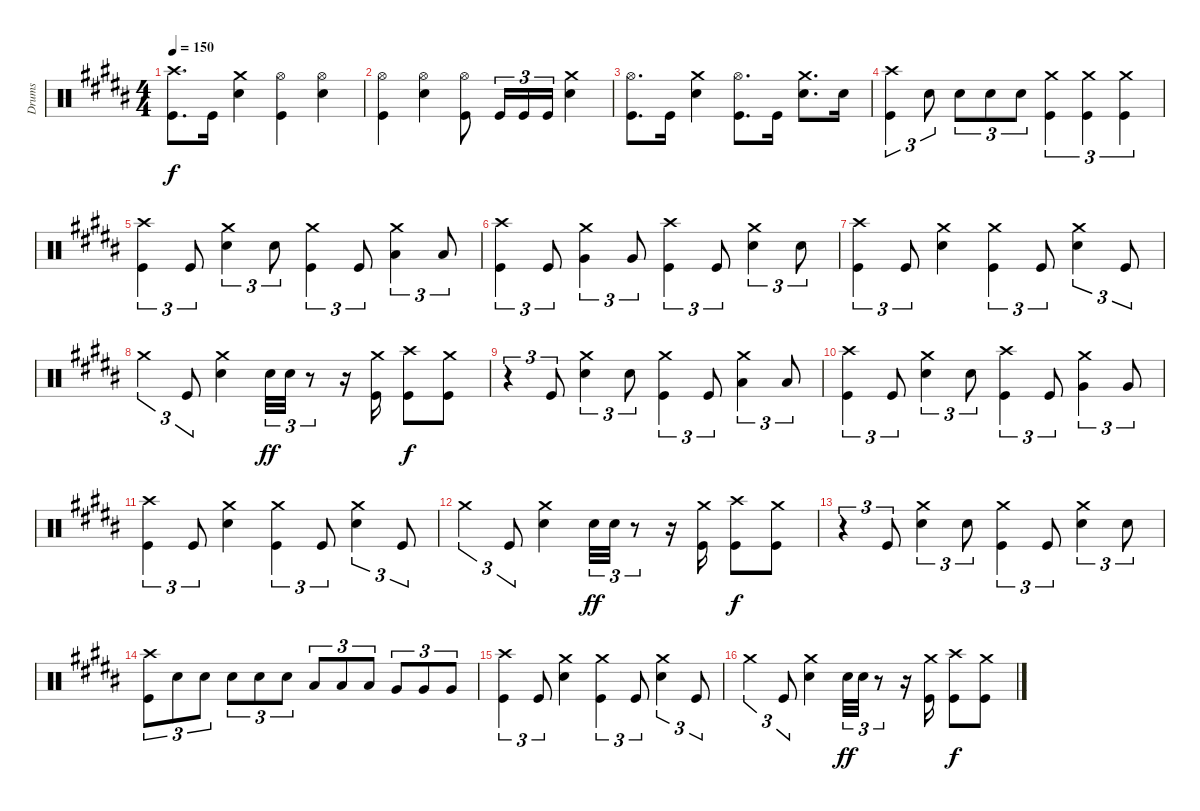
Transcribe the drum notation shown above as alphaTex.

\track ("Drums" "Drums") {instrument percussion}
\staff {score}
\articulation defaults
\ts (4 4)
\tempo 150
\clef neutral
\ks b
("Crash high (hit)" "Kick (hit)").8{d dy f} "Kick (hit)".16 ("Crash medium (hit)" "Snare (hit) 2").4 ("Kick (hit)" "Hi-Hat (open)").4 ("Snare (hit) 2" "Hi-Hat (open)").4 |
\ks g#minor
("Kick (hit)" "Hi-Hat (open)").4 ("Snare (hit) 2" "Hi-Hat (open)").4 ("Kick (hit)" "Hi-Hat (open)").8 "Kick (hit)".16{tu (3 2)} "Kick (hit)".16{tu (3 2)} "Kick (hit)".16{tu (3 2)} ("Snare (hit) 2" "Crash medium (hit)").4 |
("Hi-Hat (open)" "Kick (hit)").8{d} "Kick (hit)".16 ("Crash medium (hit)" "Snare (hit) 2").4 ("Hi-Hat (open)" "Kick (hit)").8{d} "Kick (hit)".16 ("Crash medium (hit)" "Snare (hit) 2").8{d} "Snare (hit) 2".16 |
("Crash high (hit)" "Kick (hit)").4{tu (3 2)} "Snare (hit) 2".8{tu (3 2)} "Snare (hit) 2".8{tu (3 2)} "Snare (hit) 2".8{tu (3 2)} "Snare (hit) 2".8{tu (3 2)} ("Crash medium (hit)" "Kick (hit)").4{tu (3 2)} ("Kick (hit)" "Crash medium (hit)").4{tu (3 2)} ("Kick (hit)" "Crash medium (hit)").4{tu (3 2)} |
\ks b
("Crash high (hit)" "Kick (hit)").4{tu (3 2)} "Kick (hit)".8{tu (3 2)} ("Snare (hit) 2" "Crash medium (hit)").4{tu (3 2)} "Snare (hit) 2".8{tu (3 2)} ("Crash medium (hit)" "Kick (hit)").4{tu (3 2)} "Kick (hit)".8{tu (3 2)} ("Crash medium (hit)" "Low Tom (hit)").4{tu (3 2)} "Low Tom (hit)".8{tu (3 2)} |
\ks g#minor
("Crash high (hit)" "Kick (hit)").4{tu (3 2)} "Kick (hit)".8{tu (3 2)} ("Very Low Tom (hit)" "Crash medium (hit)").4{tu (3 2)} "Very Low Tom (hit)".8{tu (3 2)} ("Crash high (hit)" "Kick (hit)").4{tu (3 2)} "Kick (hit)".8{tu (3 2)} ("Snare (hit) 2" "Crash medium (hit)").4{tu (3 2)} "Snare (hit) 2".8{tu (3 2)} |
("Crash high (hit)" "Kick (hit)").4{tu (3 2)} "Kick (hit)".8{tu (3 2)} ("Snare (hit) 2" "Crash medium (hit)").4 ("Crash medium (hit)" "Kick (hit)").4{tu (3 2)} "Kick (hit)".8{tu (3 2)} ("Snare (hit) 2" "Crash medium (hit)").4{tu (3 2)} "Kick (hit)".8{tu (3 2)} |
"Crash medium (hit)".4{tu (3 2)} "Kick (hit)".8{tu (3 2)} ("Snare (hit) 2" "Crash medium (hit)").4 "Snare (hit) 2".32{tu (3 2) dy ff} "Snare (hit) 2".32{tu (3 2)} r.8{tu (3 2)} r.16 ("Kick (hit)" "Crash medium (hit)").16 ("Crash high (hit)" "Kick (hit)").8{dy f} ("Crash medium (hit)" "Kick (hit)").8 |
\ks b
r.4{tu (3 2)} "Kick (hit)".8{tu (3 2)} ("Snare (hit) 2" "Crash medium (hit)").4{tu (3 2)} "Snare (hit) 2".8{tu (3 2)} ("Crash medium (hit)" "Kick (hit)").4{tu (3 2)} "Kick (hit)".8{tu (3 2)} ("Crash medium (hit)" "Low Tom (hit)").4{tu (3 2)} "Low Tom (hit)".8{tu (3 2)} |
\ks g#minor
("Crash high (hit)" "Kick (hit)").4{tu (3 2)} "Kick (hit)".8{tu (3 2)} ("Snare (hit) 2" "Crash medium (hit)").4{tu (3 2)} "Snare (hit) 2".8{tu (3 2)} ("Crash high (hit)" "Kick (hit)").4{tu (3 2)} "Kick (hit)".8{tu (3 2)} ("Very Low Tom (hit)" "Crash medium (hit)").4{tu (3 2)} "Very Low Tom (hit)".8{tu (3 2)} |
("Crash high (hit)" "Kick (hit)").4{tu (3 2)} "Kick (hit)".8{tu (3 2)} ("Snare (hit) 2" "Crash medium (hit)").4 ("Crash medium (hit)" "Kick (hit)").4{tu (3 2)} "Kick (hit)".8{tu (3 2)} ("Snare (hit) 2" "Crash medium (hit)").4{tu (3 2)} "Kick (hit)".8{tu (3 2)} |
"Crash medium (hit)".4{tu (3 2)} "Kick (hit)".8{tu (3 2)} ("Snare (hit) 2" "Crash medium (hit)").4 "Snare (hit) 2".32{tu (3 2) dy ff} "Snare (hit) 2".32{tu (3 2)} r.8{tu (3 2)} r.16 ("Kick (hit)" "Crash medium (hit)").16 ("Crash high (hit)" "Kick (hit)").8{dy f} ("Crash medium (hit)" "Kick (hit)").8 |
\ks b
r.4{tu (3 2)} "Kick (hit)".8{tu (3 2)} ("Snare (hit) 2" "Crash medium (hit)").4{tu (3 2)} "Snare (hit) 2".8{tu (3 2)} ("Crash medium (hit)" "Kick (hit)").4{tu (3 2)} "Kick (hit)".8{tu (3 2)} ("Crash medium (hit)" "Snare (hit) 2").4{tu (3 2)} "Snare (hit) 2".8{tu (3 2)} |
\ks g#minor
("Crash high (hit)" "Kick (hit)").8{tu (3 2)} "Snare (hit) 2".8{tu (3 2)} "Snare (hit) 2".8{tu (3 2)} "Snare (hit) 2".8{tu (3 2)} "Snare (hit) 2".8{tu (3 2)} "Snare (hit) 2".8{tu (3 2)} "Low Tom (hit)".8{tu (3 2)} "Low Tom (hit)".8{tu (3 2)} "Low Tom (hit)".8{tu (3 2)} "Very Low Tom (hit)".8{tu (3 2)} "Very Low Tom (hit)".8{tu (3 2)} "Very Low Tom (hit)".8{tu (3 2)} |
("Crash high (hit)" "Kick (hit)").4{tu (3 2)} "Kick (hit)".8{tu (3 2)} ("Snare (hit) 2" "Crash medium (hit)").4 ("Crash medium (hit)" "Kick (hit)").4{tu (3 2)} "Kick (hit)".8{tu (3 2)} ("Snare (hit) 2" "Crash medium (hit)").4{tu (3 2)} "Kick (hit)".8{tu (3 2)} |
"Crash medium (hit)".4{tu (3 2)} "Kick (hit)".8{tu (3 2)} ("Snare (hit) 2" "Crash medium (hit)").4 "Snare (hit) 2".32{tu (3 2) dy ff} "Snare (hit) 2".32{tu (3 2)} r.8{tu (3 2)} r.16 ("Kick (hit)" "Crash medium (hit)").16 ("Crash high (hit)" "Kick (hit)").8{dy f} ("Crash medium (hit)" "Kick (hit)").8
